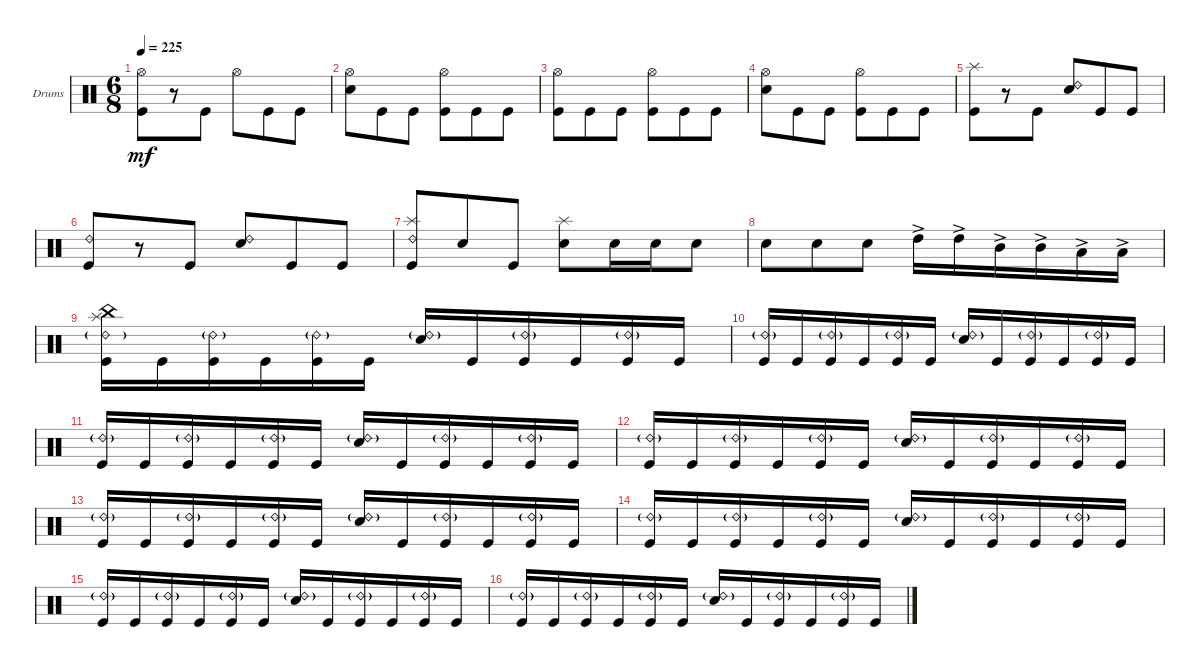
\bracketExtendMode groupsimilarinstruments
\firstSystemTrackNameOrientation horizontal
\otherSystemsTrackNameOrientation horizontal
\track ("Drumkit" "Drums") {instrument percussion}
\staff {score}
\articulation defaults
\ts (6 8)
\tempo 225
\clef neutral
\ks c
("Kick (hit)" "Hi-Hat (open)").8{dy mf} r.8 "Kick (hit)".8 "Hi-Hat (open)".8 "Kick (hit)".8 "Kick (hit)".8 |
("Snare (hit) 2" "Hi-Hat (open)").8 "Kick (hit)".8 "Kick (hit)".8 ("Kick (hit)" "Hi-Hat (open)").8 "Kick (hit)".8 "Kick (hit)".8 |
("Kick (hit)" "Hi-Hat (open)").8 "Kick (hit)".8 "Kick (hit)".8 ("Kick (hit)" "Hi-Hat (open)").8 "Kick (hit)".8 "Kick (hit)".8 |
("Snare (hit) 2" "Hi-Hat (open)").8 "Kick (hit)".8 "Kick (hit)".8 ("Kick (hit)" "Hi-Hat (open)").8 "Kick (hit)".8 "Kick (hit)".8 |
("Kick (hit)" "Splash (hit)").8 r.8 "Kick (hit)".8 ("Snare (hit) 2" "Ride (bell) 2").8 "Kick (hit)".8 "Kick (hit)".8 |
("Kick (hit)" "Ride (bell) 2").8 r.8 "Kick (hit)".8 ("Snare (hit) 2" "Ride (bell) 2").8 "Kick (hit)".8 "Kick (hit)".8 |
("Kick (hit)" "Ride (bell) 2" "Splash (hit)").8 "Snare (hit) 2".8 "Kick (hit)".8 ("Snare (hit) 2" "Splash (hit)").8 "Snare (hit) 2".16 "Snare (hit) 2".16 "Snare (hit) 2".8 |
"Snare (hit) 2".8 "Snare (hit) 2".8 "Snare (hit) 2".8 "High Tom (hit)"{ac}.16 "High Tom (hit)"{ac}.16 "Mid Tom (hit)"{ac}.16 "Mid Tom (hit)"{ac}.16 "Low Tom (hit)"{ac}.16 "Low Tom (hit)"{ac}.16 |
("Kick (hit)" "Ride (bell) 2"{g} "Splash (hit)" "China (hit)").16 "Kick (hit)".16 ("Kick (hit)" "Ride (bell) 2"{g}).16 "Kick (hit)".16 ("Kick (hit)" "Ride (bell) 2"{g}).16 "Kick (hit)".16 ("Snare (hit) 2" "Ride (bell) 2"{g}).16 "Kick (hit)".16 ("Kick (hit)" "Ride (bell) 2"{g}).16 "Kick (hit)".16 ("Kick (hit)" "Ride (bell) 2"{g}).16 "Kick (hit)".16 |
("Kick (hit)" "Ride (bell) 2"{g}).16 "Kick (hit)".16 ("Kick (hit)" "Ride (bell) 2"{g}).16 "Kick (hit)".16 ("Kick (hit)" "Ride (bell) 2"{g}).16 "Kick (hit)".16 ("Snare (hit) 2" "Ride (bell) 2"{g}).16 "Kick (hit)".16 ("Kick (hit)" "Ride (bell) 2"{g}).16 "Kick (hit)".16 ("Kick (hit)" "Ride (bell) 2"{g}).16 "Kick (hit)".16 |
("Kick (hit)" "Ride (bell) 2"{g}).16 "Kick (hit)".16 ("Kick (hit)" "Ride (bell) 2"{g}).16 "Kick (hit)".16 ("Kick (hit)" "Ride (bell) 2"{g}).16 "Kick (hit)".16 ("Snare (hit) 2" "Ride (bell) 2"{g}).16 "Kick (hit)".16 ("Kick (hit)" "Ride (bell) 2"{g}).16 "Kick (hit)".16 ("Kick (hit)" "Ride (bell) 2"{g}).16 "Kick (hit)".16 |
("Kick (hit)" "Ride (bell) 2"{g}).16 "Kick (hit)".16 ("Kick (hit)" "Ride (bell) 2"{g}).16 "Kick (hit)".16 ("Kick (hit)" "Ride (bell) 2"{g}).16 "Kick (hit)".16 ("Snare (hit) 2" "Ride (bell) 2"{g}).16 "Kick (hit)".16 ("Kick (hit)" "Ride (bell) 2"{g}).16 "Kick (hit)".16 ("Kick (hit)" "Ride (bell) 2"{g}).16 "Kick (hit)".16 |
("Kick (hit)" "Ride (bell) 2"{g}).16 "Kick (hit)".16 ("Kick (hit)" "Ride (bell) 2"{g}).16 "Kick (hit)".16 ("Kick (hit)" "Ride (bell) 2"{g}).16 "Kick (hit)".16 ("Snare (hit) 2" "Ride (bell) 2"{g}).16 "Kick (hit)".16 ("Kick (hit)" "Ride (bell) 2"{g}).16 "Kick (hit)".16 ("Kick (hit)" "Ride (bell) 2"{g}).16 "Kick (hit)".16 |
("Kick (hit)" "Ride (bell) 2"{g}).16 "Kick (hit)".16 ("Kick (hit)" "Ride (bell) 2"{g}).16 "Kick (hit)".16 ("Kick (hit)" "Ride (bell) 2"{g}).16 "Kick (hit)".16 ("Snare (hit) 2" "Ride (bell) 2"{g}).16 "Kick (hit)".16 ("Kick (hit)" "Ride (bell) 2"{g}).16 "Kick (hit)".16 ("Kick (hit)" "Ride (bell) 2"{g}).16 "Kick (hit)".16 |
("Kick (hit)" "Ride (bell) 2"{g}).16 "Kick (hit)".16 ("Kick (hit)" "Ride (bell) 2"{g}).16 "Kick (hit)".16 ("Kick (hit)" "Ride (bell) 2"{g}).16 "Kick (hit)".16 ("Snare (hit) 2" "Ride (bell) 2"{g}).16 "Kick (hit)".16 ("Kick (hit)" "Ride (bell) 2"{g}).16 "Kick (hit)".16 ("Kick (hit)" "Ride (bell) 2"{g}).16 "Kick (hit)".16 |
("Kick (hit)" "Ride (bell) 2"{g}).16 "Kick (hit)".16 ("Kick (hit)" "Ride (bell) 2"{g}).16 "Kick (hit)".16 ("Kick (hit)" "Ride (bell) 2"{g}).16 "Kick (hit)".16 ("Snare (hit) 2" "Ride (bell) 2"{g}).16 "Kick (hit)".16 ("Kick (hit)" "Ride (bell) 2"{g}).16 "Kick (hit)".16 ("Kick (hit)" "Ride (bell) 2"{g}).16 "Kick (hit)".16
